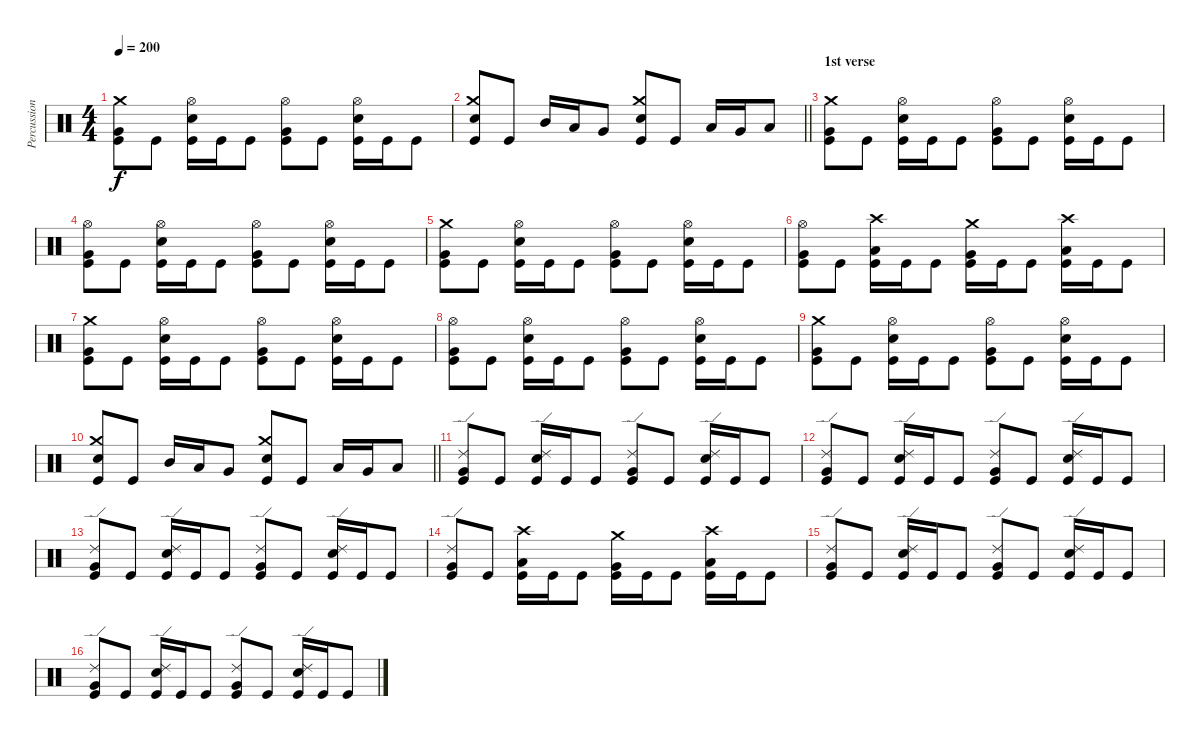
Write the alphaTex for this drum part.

\track ("Percussion" "Percussion") {instrument percussion}
\staff {score}
\articulation defaults
\ts (4 4)
\tempo 200
\clef neutral
\ks c
("Kick (hit)" "Very Low Tom (hit)" "Crash medium (hit)").8{dy f} "Kick (hit)".8 ("Kick (hit)" "Snare (hit) 2" "Hi-Hat (open)").16 "Kick (hit)".16 "Kick (hit)".8 ("Kick (hit)" "Very Low Tom (hit)" "Hi-Hat (open)").8 "Kick (hit)".8 ("Kick (hit)" "Snare (hit) 2" "Hi-Hat (open)").16 "Kick (hit)".16 "Kick (hit)".8 |
\barLineRight lightlight
("Snare (hit) 2" "Crash medium (hit)" "Kick (hit)").8 "Kick (hit)".8 "Mid Tom (hit)".16 "Low Tom (hit)".16 "Very Low Tom (hit)".8 ("Snare (hit) 2" "Crash medium (hit)" "Kick (hit)").8 "Kick (hit)".8 "Low Tom (hit)".16 "Very Low Tom (hit)".16 "Low Floor Tom (hit)".8 |
\section ("" "1st verse")
("Kick (hit)" "Very Low Tom (hit)" "Crash medium (hit)").8 "Kick (hit)".8 ("Kick (hit)" "Snare (hit) 2" "Hi-Hat (open)").16 "Kick (hit)".16 "Kick (hit)".8 ("Kick (hit)" "Very Low Tom (hit)" "Hi-Hat (open)").8 "Kick (hit)".8 ("Kick (hit)" "Snare (hit) 2" "Hi-Hat (open)").16 "Kick (hit)".16 "Kick (hit)".8 |
("Kick (hit)" "Very Low Tom (hit)" "Hi-Hat (open)").8 "Kick (hit)".8 ("Kick (hit)" "Snare (hit) 2" "Hi-Hat (open)").16 "Kick (hit)".16 "Kick (hit)".8 ("Kick (hit)" "Very Low Tom (hit)" "Hi-Hat (open)").8 "Kick (hit)".8 ("Kick (hit)" "Snare (hit) 2" "Hi-Hat (open)").16 "Kick (hit)".16 "Kick (hit)".8 |
("Kick (hit)" "Very Low Tom (hit)" "Crash medium (hit)").8 "Kick (hit)".8 ("Kick (hit)" "Snare (hit) 2" "Hi-Hat (open)").16 "Kick (hit)".16 "Kick (hit)".8 ("Kick (hit)" "Very Low Tom (hit)" "Hi-Hat (open)").8 "Kick (hit)".8 ("Kick (hit)" "Snare (hit) 2" "Hi-Hat (open)").16 "Kick (hit)".16 "Kick (hit)".8 |
("Kick (hit)" "Very Low Tom (hit)" "Hi-Hat (open)").8 "Kick (hit)".8 ("Low Tom (hit)" "Crash high (hit)" "Kick (hit)").16 "Kick (hit)".16 "Kick (hit)".8 ("Very Low Tom (hit)" "Crash medium (hit)" "Kick (hit)").16 "Kick (hit)".16 "Kick (hit)".8 ("Low Floor Tom (hit)" "Crash high (hit)" "Kick (hit)").16 "Kick (hit)".16 "Kick (hit)".8 |
("Kick (hit)" "Very Low Tom (hit)" "Crash medium (hit)").8 "Kick (hit)".8 ("Kick (hit)" "Snare (hit) 2" "Hi-Hat (open)").16 "Kick (hit)".16 "Kick (hit)".8 ("Kick (hit)" "Very Low Tom (hit)" "Hi-Hat (open)").8 "Kick (hit)".8 ("Kick (hit)" "Snare (hit) 2" "Hi-Hat (open)").16 "Kick (hit)".16 "Kick (hit)".8 |
("Kick (hit)" "Very Low Tom (hit)" "Hi-Hat (open)").8 "Kick (hit)".8 ("Kick (hit)" "Snare (hit) 2" "Hi-Hat (open)").16 "Kick (hit)".16 "Kick (hit)".8 ("Kick (hit)" "Very Low Tom (hit)" "Hi-Hat (open)").8 "Kick (hit)".8 ("Kick (hit)" "Snare (hit) 2" "Hi-Hat (open)").16 "Kick (hit)".16 "Kick (hit)".8 |
("Kick (hit)" "Very Low Tom (hit)" "Crash medium (hit)").8 "Kick (hit)".8 ("Kick (hit)" "Snare (hit) 2" "Hi-Hat (open)").16 "Kick (hit)".16 "Kick (hit)".8 ("Kick (hit)" "Very Low Tom (hit)" "Hi-Hat (open)").8 "Kick (hit)".8 ("Kick (hit)" "Snare (hit) 2" "Hi-Hat (open)").16 "Kick (hit)".16 "Kick (hit)".8 |
\barLineRight lightlight
("Snare (hit) 2" "Crash medium (hit)" "Kick (hit)").8 "Kick (hit)".8 "Mid Tom (hit)".16 "Low Tom (hit)".16 "Very Low Tom (hit)".8 ("Snare (hit) 2" "Crash medium (hit)" "Kick (hit)").8 "Kick (hit)".8 "Low Tom (hit)".16 "Very Low Tom (hit)".16 "Low Floor Tom (hit)".8 |
("Kick (hit)" "Very Low Tom (hit)" "Ride (edge) 2").8 "Kick (hit)".8 ("Kick (hit)" "Snare (hit) 2" "Ride (edge) 2").16 "Kick (hit)".16 "Kick (hit)".8 ("Kick (hit)" "Very Low Tom (hit)" "Ride (edge) 2").8 "Kick (hit)".8 ("Kick (hit)" "Snare (hit) 2" "Ride (edge) 2").16 "Kick (hit)".16 "Kick (hit)".8 |
("Kick (hit)" "Very Low Tom (hit)" "Ride (edge) 2").8 "Kick (hit)".8 ("Kick (hit)" "Snare (hit) 2" "Ride (edge) 2").16 "Kick (hit)".16 "Kick (hit)".8 ("Kick (hit)" "Very Low Tom (hit)" "Ride (edge) 2").8 "Kick (hit)".8 ("Kick (hit)" "Snare (hit) 2" "Ride (edge) 2").16 "Kick (hit)".16 "Kick (hit)".8 |
("Kick (hit)" "Very Low Tom (hit)" "Ride (edge) 2").8 "Kick (hit)".8 ("Kick (hit)" "Snare (hit) 2" "Ride (edge) 2").16 "Kick (hit)".16 "Kick (hit)".8 ("Kick (hit)" "Very Low Tom (hit)" "Ride (edge) 2").8 "Kick (hit)".8 ("Kick (hit)" "Snare (hit) 2" "Ride (edge) 2").16 "Kick (hit)".16 "Kick (hit)".8 |
("Kick (hit)" "Very Low Tom (hit)" "Ride (edge) 2").8 "Kick (hit)".8 ("Low Tom (hit)" "Crash high (hit)" "Kick (hit)").16 "Kick (hit)".16 "Kick (hit)".8 ("Very Low Tom (hit)" "Crash medium (hit)" "Kick (hit)").16 "Kick (hit)".16 "Kick (hit)".8 ("Low Floor Tom (hit)" "Crash high (hit)" "Kick (hit)").16 "Kick (hit)".16 "Kick (hit)".8 |
("Kick (hit)" "Very Low Tom (hit)" "Ride (edge) 2").8 "Kick (hit)".8 ("Kick (hit)" "Snare (hit) 2" "Ride (edge) 2").16 "Kick (hit)".16 "Kick (hit)".8 ("Kick (hit)" "Very Low Tom (hit)" "Ride (edge) 2").8 "Kick (hit)".8 ("Kick (hit)" "Snare (hit) 2" "Ride (edge) 2").16 "Kick (hit)".16 "Kick (hit)".8 |
("Kick (hit)" "Very Low Tom (hit)" "Ride (edge) 2").8 "Kick (hit)".8 ("Kick (hit)" "Snare (hit) 2" "Ride (edge) 2").16 "Kick (hit)".16 "Kick (hit)".8 ("Kick (hit)" "Very Low Tom (hit)" "Ride (edge) 2").8 "Kick (hit)".8 ("Kick (hit)" "Snare (hit) 2" "Ride (edge) 2").16 "Kick (hit)".16 "Kick (hit)".8
